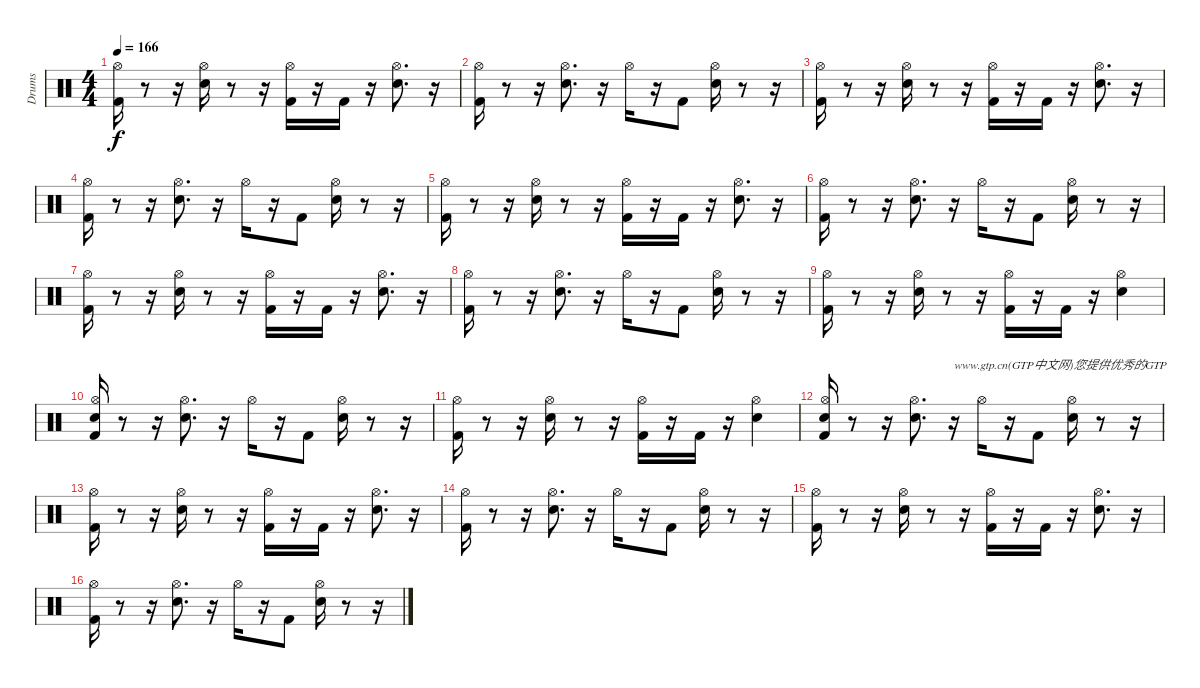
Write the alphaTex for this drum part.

\track ("Drums" "Drums") {instrument percussion}
\staff {score}
\articulation defaults
\ts (4 4)
\tempo 166
\clef neutral
\ks c
("Kick (hit) 2" "Hi-Hat (open)").16{dy f} r.8 r.16 ("Snare (hit) 2" "Hi-Hat (open)").16 r.8 r.16 ("Kick (hit) 2" "Hi-Hat (open)").16 r.16 "Kick (hit) 2".16 r.16 ("Snare (hit) 2" "Hi-Hat (open)").8{d} r.16 |
("Kick (hit) 2" "Hi-Hat (open)").16 r.8 r.16 ("Hi-Hat (open)" "Snare (hit) 2").8{d} r.16 "Hi-Hat (open)".16 r.16 "Kick (hit) 2".8 ("Snare (hit) 2" "Hi-Hat (open)").16 r.8 r.16 |
("Kick (hit) 2" "Hi-Hat (open)").16 r.8 r.16 ("Snare (hit) 2" "Hi-Hat (open)").16 r.8 r.16 ("Kick (hit) 2" "Hi-Hat (open)").16 r.16 "Kick (hit) 2".16 r.16 ("Snare (hit) 2" "Hi-Hat (open)").8{d} r.16 |
("Kick (hit) 2" "Hi-Hat (open)").16 r.8 r.16 ("Hi-Hat (open)" "Snare (hit) 2").8{d} r.16 "Hi-Hat (open)".16 r.16 "Kick (hit) 2".8 ("Snare (hit) 2" "Hi-Hat (open)").16 r.8 r.16 |
("Kick (hit) 2" "Hi-Hat (open)").16 r.8 r.16 ("Snare (hit) 2" "Hi-Hat (open)").16 r.8 r.16 ("Kick (hit) 2" "Hi-Hat (open)").16 r.16 "Kick (hit) 2".16 r.16 ("Snare (hit) 2" "Hi-Hat (open)").8{d} r.16 |
("Kick (hit) 2" "Hi-Hat (open)").16 r.8 r.16 ("Hi-Hat (open)" "Snare (hit) 2").8{d} r.16 "Hi-Hat (open)".16 r.16 "Kick (hit) 2".8 ("Snare (hit) 2" "Hi-Hat (open)").16 r.8 r.16 |
("Kick (hit) 2" "Hi-Hat (open)").16 r.8 r.16 ("Snare (hit) 2" "Hi-Hat (open)").16 r.8 r.16 ("Kick (hit) 2" "Hi-Hat (open)").16 r.16 "Kick (hit) 2".16 r.16 ("Snare (hit) 2" "Hi-Hat (open)").8{d} r.16 |
("Kick (hit) 2" "Hi-Hat (open)").16 r.8 r.16 ("Hi-Hat (open)" "Snare (hit) 2").8{d} r.16 "Hi-Hat (open)".16 r.16 "Kick (hit) 2".8 ("Snare (hit) 2" "Hi-Hat (open)").16 r.8 r.16 |
("Kick (hit) 2" "Hi-Hat (open)").16 r.8 r.16 ("Snare (hit) 2" "Hi-Hat (open)").16 r.8 r.16 ("Kick (hit) 2" "Hi-Hat (open)").16 r.16 "Kick (hit) 2".16 r.16 ("Snare (hit) 2" "Hi-Hat (open)").4 |
("Snare (hit)" "Kick (hit) 2" "Hi-Hat (open)").16 r.8 r.16 ("Hi-Hat (open)" "Snare (hit) 2").8{d} r.16 "Hi-Hat (open)".16 r.16 "Kick (hit) 2".8 ("Snare (hit) 2" "Hi-Hat (open)").16 r.8 r.16 |
("Kick (hit) 2" "Hi-Hat (open)").16 r.8 r.16 ("Snare (hit) 2" "Hi-Hat (open)").16 r.8 r.16 ("Kick (hit) 2" "Hi-Hat (open)").16 r.16 "Kick (hit) 2".16 r.16 ("Snare (hit) 2" "Hi-Hat (open)").4 |
("Snare (hit)" "Kick (hit) 2" "Hi-Hat (open)").16 r.8 r.16 ("Hi-Hat (open)" "Snare (hit) 2").8{d} r.16{txt "www.gtp.cn(GTP中文网)您提供优秀的GTP"} "Hi-Hat (open)".16 r.16 "Kick (hit) 2".8 ("Snare (hit) 2" "Hi-Hat (open)").16 r.8 r.16 |
("Kick (hit) 2" "Hi-Hat (open)").16 r.8 r.16 ("Snare (hit) 2" "Hi-Hat (open)").16 r.8 r.16 ("Kick (hit) 2" "Hi-Hat (open)").16 r.16 "Kick (hit) 2".16 r.16 ("Snare (hit) 2" "Hi-Hat (open)").8{d} r.16 |
("Kick (hit) 2" "Hi-Hat (open)").16 r.8 r.16 ("Hi-Hat (open)" "Snare (hit) 2").8{d} r.16 "Hi-Hat (open)".16 r.16 "Kick (hit) 2".8 ("Snare (hit) 2" "Hi-Hat (open)").16 r.8 r.16 |
("Kick (hit) 2" "Hi-Hat (open)").16 r.8 r.16 ("Snare (hit) 2" "Hi-Hat (open)").16 r.8 r.16 ("Kick (hit) 2" "Hi-Hat (open)").16 r.16 "Kick (hit) 2".16 r.16 ("Snare (hit) 2" "Hi-Hat (open)").8{d} r.16 |
("Kick (hit) 2" "Hi-Hat (open)").16 r.8 r.16 ("Hi-Hat (open)" "Snare (hit) 2").8{d} r.16 "Hi-Hat (open)".16 r.16 "Kick (hit) 2".8 ("Snare (hit) 2" "Hi-Hat (open)").16 r.8 r.16
